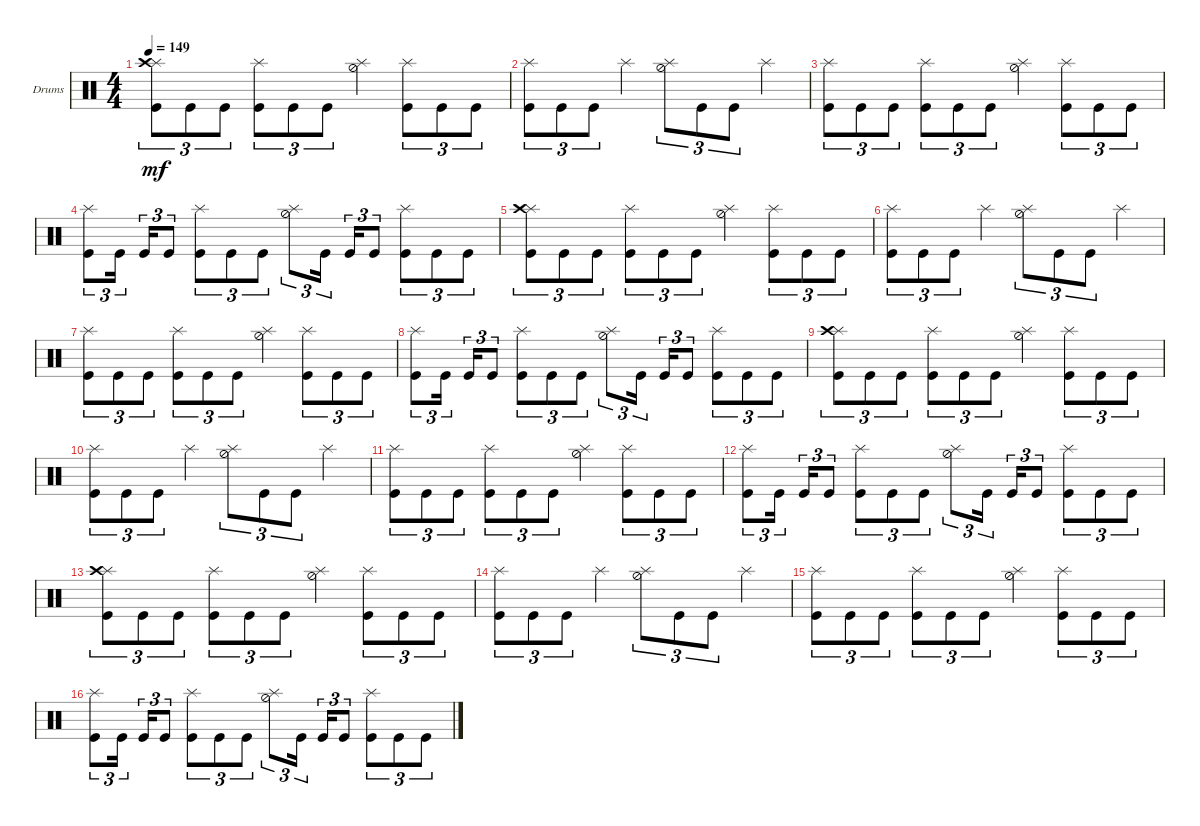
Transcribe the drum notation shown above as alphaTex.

\defaultSystemsLayout 4
\bracketExtendMode groupsimilarinstruments
\firstSystemTrackNameOrientation horizontal
\otherSystemsTrackNameOrientation horizontal
\track ("Chris Adler" "Drums") {instrument percussion}
\staff {score}
\articulation defaults
\ts (4 4)
\tempo 149
\clef neutral
\scale
0.333333
\ks c
("Kick (hit)" "Splash (hit)" "Crash high (hit)").8{tu (3 2) dy mf} "Kick (hit)".8{tu (3 2)} "Kick (hit)".8{tu (3 2)} ("Kick (hit)" "Splash (hit)").8{tu (3 2)} "Kick (hit)".8{tu (3 2)} "Kick (hit)".8{tu (3 2)} ("Hi-Hat (half)" "Splash (hit)").4 ("Kick (hit)" "Splash (hit)").8{tu (3 2)} "Kick (hit)".8{tu (3 2)} "Kick (hit)".8{tu (3 2)} |
\scale
0.333333 ("Kick (hit)" "Splash (hit)").8{tu (3 2)} "Kick (hit)".8{tu (3 2)} "Kick (hit)".8{tu (3 2)} "Splash (hit)".4 ("Hi-Hat (half)" "Splash (hit)").8{tu (3 2)} "Kick (hit)".8{tu (3 2)} "Kick (hit)".8{tu (3 2)} "Splash (hit)".4 |
\scale
0.333333 ("Kick (hit)" "Splash (hit)").8{tu (3 2)} "Kick (hit)".8{tu (3 2)} "Kick (hit)".8{tu (3 2)} ("Kick (hit)" "Splash (hit)").8{tu (3 2)} "Kick (hit)".8{tu (3 2)} "Kick (hit)".8{tu (3 2)} ("Hi-Hat (half)" "Splash (hit)").4 ("Kick (hit)" "Splash (hit)").8{tu (3 2)} "Kick (hit)".8{tu (3 2)} "Kick (hit)".8{tu (3 2)} |
\scale
0.333333 ("Kick (hit)" "Splash (hit)").8{tu (3 2)} "Kick (hit)".16{tu (3 2)} "Kick (hit)".16{tu (3 2)} "Kick (hit)".8{tu (3 2)} ("Kick (hit)" "Splash (hit)").8{tu (3 2)} "Kick (hit)".8{tu (3 2)} "Kick (hit)".8{tu (3 2)} ("Hi-Hat (half)" "Splash (hit)").8{tu (3 2)} "Kick (hit)".16{tu (3 2)} "Kick (hit)".16{tu (3 2)} "Kick (hit)".8{tu (3 2)} ("Kick (hit)" "Splash (hit)").8{tu (3 2)} "Kick (hit)".8{tu (3 2)} "Kick (hit)".8{tu (3 2)} |
\scale
0.333333 ("Kick (hit)" "Splash (hit)" "Crash high (hit)").8{tu (3 2)} "Kick (hit)".8{tu (3 2)} "Kick (hit)".8{tu (3 2)} ("Kick (hit)" "Splash (hit)").8{tu (3 2)} "Kick (hit)".8{tu (3 2)} "Kick (hit)".8{tu (3 2)} ("Hi-Hat (half)" "Splash (hit)").4 ("Kick (hit)" "Splash (hit)").8{tu (3 2)} "Kick (hit)".8{tu (3 2)} "Kick (hit)".8{tu (3 2)} |
\scale
0.333333 ("Kick (hit)" "Splash (hit)").8{tu (3 2)} "Kick (hit)".8{tu (3 2)} "Kick (hit)".8{tu (3 2)} "Splash (hit)".4 ("Hi-Hat (half)" "Splash (hit)").8{tu (3 2)} "Kick (hit)".8{tu (3 2)} "Kick (hit)".8{tu (3 2)} "Splash (hit)".4 |
\scale
0.333333 ("Kick (hit)" "Splash (hit)").8{tu (3 2)} "Kick (hit)".8{tu (3 2)} "Kick (hit)".8{tu (3 2)} ("Kick (hit)" "Splash (hit)").8{tu (3 2)} "Kick (hit)".8{tu (3 2)} "Kick (hit)".8{tu (3 2)} ("Hi-Hat (half)" "Splash (hit)").4 ("Kick (hit)" "Splash (hit)").8{tu (3 2)} "Kick (hit)".8{tu (3 2)} "Kick (hit)".8{tu (3 2)} |
\scale
0.333333 ("Kick (hit)" "Splash (hit)").8{tu (3 2)} "Kick (hit)".16{tu (3 2)} "Kick (hit)".16{tu (3 2)} "Kick (hit)".8{tu (3 2)} ("Kick (hit)" "Splash (hit)").8{tu (3 2)} "Kick (hit)".8{tu (3 2)} "Kick (hit)".8{tu (3 2)} ("Hi-Hat (half)" "Splash (hit)").8{tu (3 2)} "Kick (hit)".16{tu (3 2)} "Kick (hit)".16{tu (3 2)} "Kick (hit)".8{tu (3 2)} ("Kick (hit)" "Splash (hit)").8{tu (3 2)} "Kick (hit)".8{tu (3 2)} "Kick (hit)".8{tu (3 2)} |
\scale
0.333333 ("Kick (hit)" "Splash (hit)" "Crash high (hit)").8{tu (3 2)} "Kick (hit)".8{tu (3 2)} "Kick (hit)".8{tu (3 2)} ("Kick (hit)" "Splash (hit)").8{tu (3 2)} "Kick (hit)".8{tu (3 2)} "Kick (hit)".8{tu (3 2)} ("Hi-Hat (half)" "Splash (hit)").4 ("Kick (hit)" "Splash (hit)").8{tu (3 2)} "Kick (hit)".8{tu (3 2)} "Kick (hit)".8{tu (3 2)} |
\scale
0.333333 ("Kick (hit)" "Splash (hit)").8{tu (3 2)} "Kick (hit)".8{tu (3 2)} "Kick (hit)".8{tu (3 2)} "Splash (hit)".4 ("Hi-Hat (half)" "Splash (hit)").8{tu (3 2)} "Kick (hit)".8{tu (3 2)} "Kick (hit)".8{tu (3 2)} "Splash (hit)".4 |
\scale
0.333333 ("Kick (hit)" "Splash (hit)").8{tu (3 2)} "Kick (hit)".8{tu (3 2)} "Kick (hit)".8{tu (3 2)} ("Kick (hit)" "Splash (hit)").8{tu (3 2)} "Kick (hit)".8{tu (3 2)} "Kick (hit)".8{tu (3 2)} ("Hi-Hat (half)" "Splash (hit)").4 ("Kick (hit)" "Splash (hit)").8{tu (3 2)} "Kick (hit)".8{tu (3 2)} "Kick (hit)".8{tu (3 2)} |
\scale
0.333333 ("Kick (hit)" "Splash (hit)").8{tu (3 2)} "Kick (hit)".16{tu (3 2)} "Kick (hit)".16{tu (3 2)} "Kick (hit)".8{tu (3 2)} ("Kick (hit)" "Splash (hit)").8{tu (3 2)} "Kick (hit)".8{tu (3 2)} "Kick (hit)".8{tu (3 2)} ("Hi-Hat (half)" "Splash (hit)").8{tu (3 2)} "Kick (hit)".16{tu (3 2)} "Kick (hit)".16{tu (3 2)} "Kick (hit)".8{tu (3 2)} ("Kick (hit)" "Splash (hit)").8{tu (3 2)} "Kick (hit)".8{tu (3 2)} "Kick (hit)".8{tu (3 2)} |
\scale
0.333333 ("Kick (hit)" "Splash (hit)" "Crash high (hit)").8{tu (3 2)} "Kick (hit)".8{tu (3 2)} "Kick (hit)".8{tu (3 2)} ("Kick (hit)" "Splash (hit)").8{tu (3 2)} "Kick (hit)".8{tu (3 2)} "Kick (hit)".8{tu (3 2)} ("Hi-Hat (half)" "Splash (hit)").4 ("Kick (hit)" "Splash (hit)").8{tu (3 2)} "Kick (hit)".8{tu (3 2)} "Kick (hit)".8{tu (3 2)} |
\scale
0.333333 ("Kick (hit)" "Splash (hit)").8{tu (3 2)} "Kick (hit)".8{tu (3 2)} "Kick (hit)".8{tu (3 2)} "Splash (hit)".4 ("Hi-Hat (half)" "Splash (hit)").8{tu (3 2)} "Kick (hit)".8{tu (3 2)} "Kick (hit)".8{tu (3 2)} "Splash (hit)".4 |
\scale
0.333333 ("Kick (hit)" "Splash (hit)").8{tu (3 2)} "Kick (hit)".8{tu (3 2)} "Kick (hit)".8{tu (3 2)} ("Kick (hit)" "Splash (hit)").8{tu (3 2)} "Kick (hit)".8{tu (3 2)} "Kick (hit)".8{tu (3 2)} ("Hi-Hat (half)" "Splash (hit)").4 ("Kick (hit)" "Splash (hit)").8{tu (3 2)} "Kick (hit)".8{tu (3 2)} "Kick (hit)".8{tu (3 2)} |
\scale
0.333333 ("Kick (hit)" "Splash (hit)").8{tu (3 2)} "Kick (hit)".16{tu (3 2)} "Kick (hit)".16{tu (3 2)} "Kick (hit)".8{tu (3 2)} ("Kick (hit)" "Splash (hit)").8{tu (3 2)} "Kick (hit)".8{tu (3 2)} "Kick (hit)".8{tu (3 2)} ("Hi-Hat (half)" "Splash (hit)").8{tu (3 2)} "Kick (hit)".16{tu (3 2)} "Kick (hit)".16{tu (3 2)} "Kick (hit)".8{tu (3 2)} ("Kick (hit)" "Splash (hit)").8{tu (3 2)} "Kick (hit)".8{tu (3 2)} "Kick (hit)".8{tu (3 2)}
